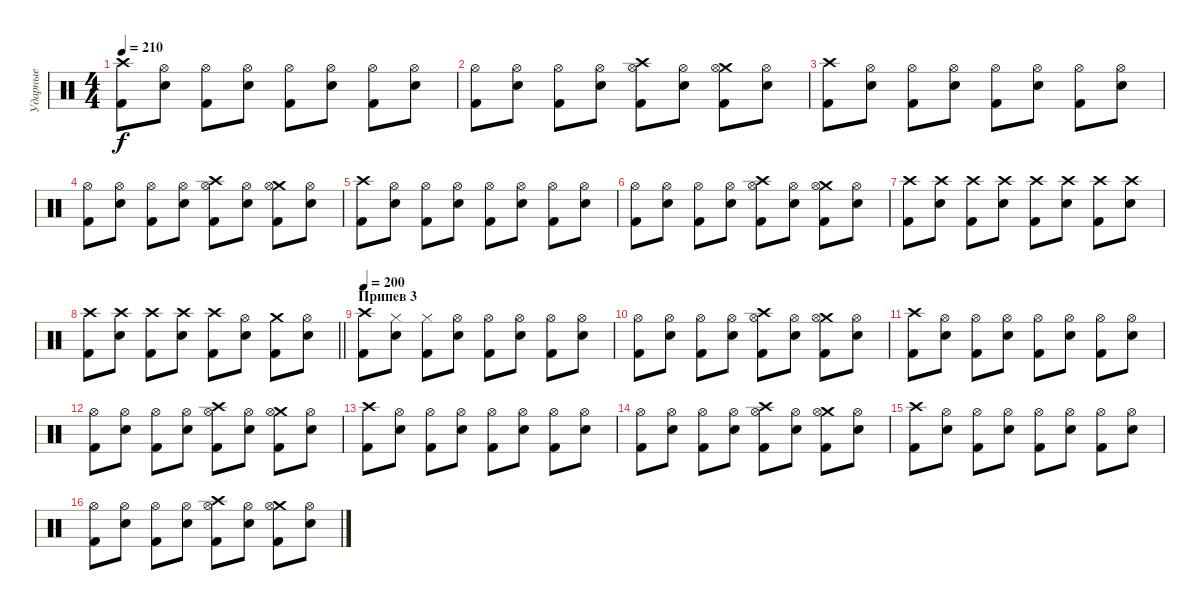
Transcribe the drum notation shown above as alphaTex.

\track ("Ударные" "Ударные") {instrument percussion}
\staff {score}
\articulation defaults
\ts (4 4)
\tempo 210
\clef neutral
\ks c
("Crash high (hit)" "Kick (hit) 2").8{dy f} ("Hi-Hat (open)" "Snare (hit) 2").8 ("Hi-Hat (open)" "Kick (hit) 2").8 ("Hi-Hat (open)" "Snare (hit) 2").8 ("Hi-Hat (open)" "Kick (hit) 2").8 ("Hi-Hat (open)" "Snare (hit) 2").8 ("Hi-Hat (open)" "Kick (hit) 2").8 ("Hi-Hat (open)" "Snare (hit) 2").8 |
("Hi-Hat (open)" "Kick (hit) 2").8 ("Hi-Hat (open)" "Snare (hit) 2").8 ("Hi-Hat (open)" "Kick (hit) 2").8 ("Hi-Hat (open)" "Snare (hit) 2").8 ("Crash high (hit)" "Hi-Hat (open)" "Kick (hit) 2").8 ("Hi-Hat (open)" "Snare (hit) 2").8 ("Crash medium (hit)" "Hi-Hat (open)" "Kick (hit) 2").8 ("Hi-Hat (open)" "Snare (hit) 2").8 |
("Crash high (hit)" "Kick (hit) 2").8 ("Hi-Hat (open)" "Snare (hit) 2").8 ("Hi-Hat (open)" "Kick (hit) 2").8 ("Hi-Hat (open)" "Snare (hit) 2").8 ("Hi-Hat (open)" "Kick (hit) 2").8 ("Hi-Hat (open)" "Snare (hit) 2").8 ("Hi-Hat (open)" "Kick (hit) 2").8 ("Hi-Hat (open)" "Snare (hit) 2").8 |
("Hi-Hat (open)" "Kick (hit) 2").8 ("Hi-Hat (open)" "Snare (hit) 2").8 ("Hi-Hat (open)" "Kick (hit) 2").8 ("Hi-Hat (open)" "Snare (hit) 2").8 ("Crash high (hit)" "Hi-Hat (open)" "Kick (hit) 2").8 ("Hi-Hat (open)" "Snare (hit) 2").8 ("Crash medium (hit)" "Hi-Hat (open)" "Kick (hit) 2").8 ("Hi-Hat (open)" "Snare (hit) 2").8 |
("Crash high (hit)" "Kick (hit) 2").8 ("Hi-Hat (open)" "Snare (hit) 2").8 ("Hi-Hat (open)" "Kick (hit) 2").8 ("Hi-Hat (open)" "Snare (hit) 2").8 ("Hi-Hat (open)" "Kick (hit) 2").8 ("Hi-Hat (open)" "Snare (hit) 2").8 ("Hi-Hat (open)" "Kick (hit) 2").8 ("Hi-Hat (open)" "Snare (hit) 2").8 |
("Hi-Hat (open)" "Kick (hit) 2").8 ("Hi-Hat (open)" "Snare (hit) 2").8 ("Hi-Hat (open)" "Kick (hit) 2").8 ("Hi-Hat (open)" "Snare (hit) 2").8 ("Crash high (hit)" "Hi-Hat (open)" "Kick (hit) 2").8 ("Hi-Hat (open)" "Snare (hit) 2").8 ("Crash medium (hit)" "Hi-Hat (open)" "Kick (hit) 2").8 ("Hi-Hat (open)" "Snare (hit) 2").8 |
("Crash high (hit)" "Kick (hit) 2").8 ("Crash high (hit)" "Snare (hit) 2").8 ("Crash high (hit)" "Kick (hit) 2").8 ("Crash high (hit)" "Snare (hit) 2").8 ("Crash high (hit)" "Kick (hit) 2").8 ("Crash high (hit)" "Snare (hit) 2").8 ("Crash high (hit)" "Kick (hit) 2").8 ("Crash high (hit)" "Snare (hit) 2").8 |
\barLineRight lightlight
("Crash high (hit)" "Kick (hit) 2").8 ("Crash high (hit)" "Snare (hit) 2").8 ("Crash high (hit)" "Kick (hit) 2").8 ("Crash high (hit)" "Snare (hit) 2").8 ("Crash high (hit)" "Kick (hit) 2").8 ("Hi-Hat (open)" "Snare (hit) 2").8 ("Crash medium (hit)" "Kick (hit) 2").8 ("Hi-Hat (open)" "Snare (hit) 2").8 |
\section ("" "Припев 3")
\tempo 200
("Crash high (hit)" "Kick (hit) 2").8 ("Hi-Hat (closed)" "Snare (hit) 2").8 ("Hi-Hat (closed)" "Kick (hit) 2").8 ("Hi-Hat (open)" "Snare (hit) 2").8 ("Hi-Hat (open)" "Kick (hit) 2").8 ("Hi-Hat (open)" "Snare (hit) 2").8 ("Hi-Hat (open)" "Kick (hit) 2").8 ("Hi-Hat (open)" "Snare (hit) 2").8 |
("Hi-Hat (open)" "Kick (hit) 2").8 ("Hi-Hat (open)" "Snare (hit) 2").8 ("Hi-Hat (open)" "Kick (hit) 2").8 ("Hi-Hat (open)" "Snare (hit) 2").8 ("Crash high (hit)" "Hi-Hat (open)" "Kick (hit) 2").8 ("Hi-Hat (open)" "Snare (hit) 2").8 ("Crash medium (hit)" "Hi-Hat (open)" "Kick (hit) 2").8 ("Hi-Hat (open)" "Snare (hit) 2").8 |
("Crash high (hit)" "Kick (hit) 2").8 ("Hi-Hat (open)" "Snare (hit) 2").8 ("Hi-Hat (open)" "Kick (hit) 2").8 ("Hi-Hat (open)" "Snare (hit) 2").8 ("Hi-Hat (open)" "Kick (hit) 2").8 ("Hi-Hat (open)" "Snare (hit) 2").8 ("Hi-Hat (open)" "Kick (hit) 2").8 ("Hi-Hat (open)" "Snare (hit) 2").8 |
("Hi-Hat (open)" "Kick (hit) 2").8 ("Hi-Hat (open)" "Snare (hit) 2").8 ("Hi-Hat (open)" "Kick (hit) 2").8 ("Hi-Hat (open)" "Snare (hit) 2").8 ("Crash high (hit)" "Hi-Hat (open)" "Kick (hit) 2").8 ("Hi-Hat (open)" "Snare (hit) 2").8 ("Crash medium (hit)" "Hi-Hat (open)" "Kick (hit) 2").8 ("Hi-Hat (open)" "Snare (hit) 2").8 |
("Crash high (hit)" "Kick (hit) 2").8 ("Hi-Hat (open)" "Snare (hit) 2").8 ("Hi-Hat (open)" "Kick (hit) 2").8 ("Hi-Hat (open)" "Snare (hit) 2").8 ("Hi-Hat (open)" "Kick (hit) 2").8 ("Hi-Hat (open)" "Snare (hit) 2").8 ("Hi-Hat (open)" "Kick (hit) 2").8 ("Hi-Hat (open)" "Snare (hit) 2").8 |
("Hi-Hat (open)" "Kick (hit) 2").8 ("Hi-Hat (open)" "Snare (hit) 2").8 ("Hi-Hat (open)" "Kick (hit) 2").8 ("Hi-Hat (open)" "Snare (hit) 2").8 ("Crash high (hit)" "Hi-Hat (open)" "Kick (hit) 2").8 ("Hi-Hat (open)" "Snare (hit) 2").8 ("Crash medium (hit)" "Hi-Hat (open)" "Kick (hit) 2").8 ("Hi-Hat (open)" "Snare (hit) 2").8 |
("Crash high (hit)" "Kick (hit) 2").8 ("Hi-Hat (open)" "Snare (hit) 2").8 ("Hi-Hat (open)" "Kick (hit) 2").8 ("Hi-Hat (open)" "Snare (hit) 2").8 ("Hi-Hat (open)" "Kick (hit) 2").8 ("Hi-Hat (open)" "Snare (hit) 2").8 ("Hi-Hat (open)" "Kick (hit) 2").8 ("Hi-Hat (open)" "Snare (hit) 2").8 |
("Hi-Hat (open)" "Kick (hit) 2").8 ("Hi-Hat (open)" "Snare (hit) 2").8 ("Hi-Hat (open)" "Kick (hit) 2").8 ("Hi-Hat (open)" "Snare (hit) 2").8 ("Crash high (hit)" "Hi-Hat (open)" "Kick (hit) 2").8 ("Hi-Hat (open)" "Snare (hit) 2").8 ("Crash medium (hit)" "Hi-Hat (open)" "Kick (hit) 2").8 ("Hi-Hat (open)" "Snare (hit) 2").8
